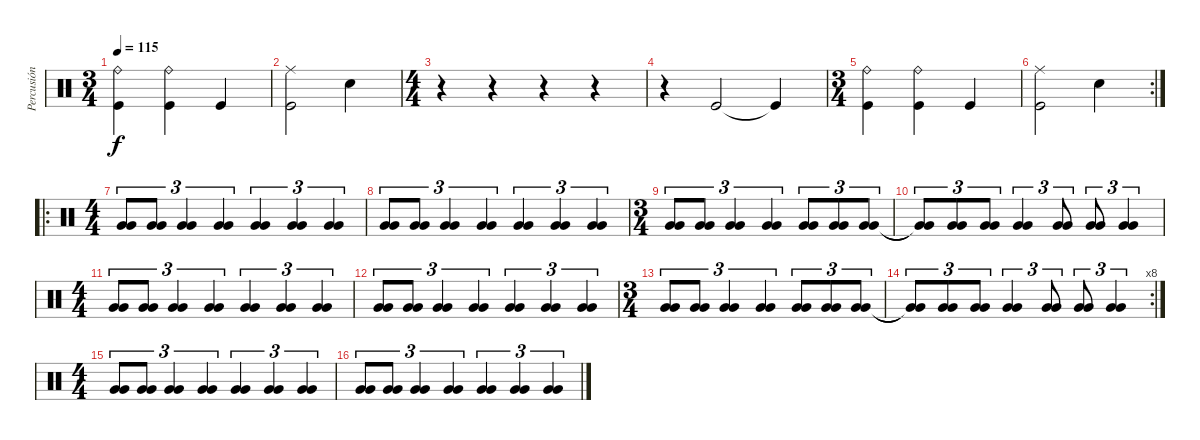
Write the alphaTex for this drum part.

\track ("Percusión" "Percusión") {instrument percussion}
\staff {score}
\articulation defaults
\ts (3 4)
\tempo 115
\clef neutral
\ks c
("Ride (bell)" "Kick (hit)").4{dy f} ("Ride (bell)" "Kick (hit)").4 "Kick (hit)".4 |
("Ride (middle)" "Kick (hit)").2 "Electric Snare (hit)".4 |
\ts (4 4)
r.4 r.4 r.4 r.4 |
r.4 "Kick (hit)".2 "Kick (hit)"{t}.4 |
\ts (3 4)
("Ride (bell)" "Kick (hit)").4 ("Ride (bell)" "Kick (hit)").4 "Kick (hit)".4 |
\rc 2
("Ride (middle)" "Kick (hit)").2 "Electric Snare (hit)".4 |
\ro
\ts (4 4)
("Very Low Tom (hit)" "Very Low Tom (hit)").8{tu (3 2)} ("Very Low Tom (hit)" "Very Low Tom (hit)").8{tu (3 2)} ("Very Low Tom (hit)" "Very Low Tom (hit)").4{tu (3 2)} ("Very Low Tom (hit)" "Very Low Tom (hit)").4{tu (3 2)} ("Very Low Tom (hit)" "Very Low Tom (hit)").4{tu (3 2)} ("Very Low Tom (hit)" "Very Low Tom (hit)").4{tu (3 2)} ("Very Low Tom (hit)" "Very Low Tom (hit)").4{tu (3 2)} |
("Very Low Tom (hit)" "Very Low Tom (hit)").8{tu (3 2)} ("Very Low Tom (hit)" "Very Low Tom (hit)").8{tu (3 2)} ("Very Low Tom (hit)" "Very Low Tom (hit)").4{tu (3 2)} ("Very Low Tom (hit)" "Very Low Tom (hit)").4{tu (3 2)} ("Very Low Tom (hit)" "Very Low Tom (hit)").4{tu (3 2)} ("Very Low Tom (hit)" "Very Low Tom (hit)").4{tu (3 2)} ("Very Low Tom (hit)" "Very Low Tom (hit)").4{tu (3 2)} |
\ts (3 4)
("Very Low Tom (hit)" "Very Low Tom (hit)").8{tu (3 2)} ("Very Low Tom (hit)" "Very Low Tom (hit)").8{tu (3 2)} ("Very Low Tom (hit)" "Very Low Tom (hit)").4{tu (3 2)} ("Very Low Tom (hit)" "Very Low Tom (hit)").4{tu (3 2)} ("Very Low Tom (hit)" "Very Low Tom (hit)").8{tu (3 2)} ("Very Low Tom (hit)" "Very Low Tom (hit)").8{tu (3 2)} ("Very Low Tom (hit)" "Very Low Tom (hit)").8{tu (3 2)} |
("Very Low Tom (hit)"{t} "Very Low Tom (hit)"{t}).8{tu (3 2)} ("Very Low Tom (hit)" "Very Low Tom (hit)").8{tu (3 2)} ("Very Low Tom (hit)" "Very Low Tom (hit)").8{tu (3 2)} ("Very Low Tom (hit)" "Very Low Tom (hit)").4{tu (3 2)} ("Very Low Tom (hit)" "Very Low Tom (hit)").8{tu (3 2)} ("Very Low Tom (hit)" "Very Low Tom (hit)").8{tu (3 2)} ("Very Low Tom (hit)" "Very Low Tom (hit)").4{tu (3 2)} |
\ts (4 4)
("Very Low Tom (hit)" "Very Low Tom (hit)").8{tu (3 2)} ("Very Low Tom (hit)" "Very Low Tom (hit)").8{tu (3 2)} ("Very Low Tom (hit)" "Very Low Tom (hit)").4{tu (3 2)} ("Very Low Tom (hit)" "Very Low Tom (hit)").4{tu (3 2)} ("Very Low Tom (hit)" "Very Low Tom (hit)").4{tu (3 2)} ("Very Low Tom (hit)" "Very Low Tom (hit)").4{tu (3 2)} ("Very Low Tom (hit)" "Very Low Tom (hit)").4{tu (3 2)} |
("Very Low Tom (hit)" "Very Low Tom (hit)").8{tu (3 2)} ("Very Low Tom (hit)" "Very Low Tom (hit)").8{tu (3 2)} ("Very Low Tom (hit)" "Very Low Tom (hit)").4{tu (3 2)} ("Very Low Tom (hit)" "Very Low Tom (hit)").4{tu (3 2)} ("Very Low Tom (hit)" "Very Low Tom (hit)").4{tu (3 2)} ("Very Low Tom (hit)" "Very Low Tom (hit)").4{tu (3 2)} ("Very Low Tom (hit)" "Very Low Tom (hit)").4{tu (3 2)} |
\ts (3 4)
("Very Low Tom (hit)" "Very Low Tom (hit)").8{tu (3 2)} ("Very Low Tom (hit)" "Very Low Tom (hit)").8{tu (3 2)} ("Very Low Tom (hit)" "Very Low Tom (hit)").4{tu (3 2)} ("Very Low Tom (hit)" "Very Low Tom (hit)").4{tu (3 2)} ("Very Low Tom (hit)" "Very Low Tom (hit)").8{tu (3 2)} ("Very Low Tom (hit)" "Very Low Tom (hit)").8{tu (3 2)} ("Very Low Tom (hit)" "Very Low Tom (hit)").8{tu (3 2)} |
\rc 8
("Very Low Tom (hit)"{t} "Very Low Tom (hit)"{t}).8{tu (3 2)} ("Very Low Tom (hit)" "Very Low Tom (hit)").8{tu (3 2)} ("Very Low Tom (hit)" "Very Low Tom (hit)").8{tu (3 2)} ("Very Low Tom (hit)" "Very Low Tom (hit)").4{tu (3 2)} ("Very Low Tom (hit)" "Very Low Tom (hit)").8{tu (3 2)} ("Very Low Tom (hit)" "Very Low Tom (hit)").8{tu (3 2)} ("Very Low Tom (hit)" "Very Low Tom (hit)").4{tu (3 2)} |
\ts (4 4)
("Very Low Tom (hit)" "Very Low Tom (hit)").8{tu (3 2)} ("Very Low Tom (hit)" "Very Low Tom (hit)").8{tu (3 2)} ("Very Low Tom (hit)" "Very Low Tom (hit)").4{tu (3 2)} ("Very Low Tom (hit)" "Very Low Tom (hit)").4{tu (3 2)} ("Very Low Tom (hit)" "Very Low Tom (hit)").4{tu (3 2)} ("Very Low Tom (hit)" "Very Low Tom (hit)").4{tu (3 2)} ("Very Low Tom (hit)" "Very Low Tom (hit)").4{tu (3 2)} |
("Very Low Tom (hit)" "Very Low Tom (hit)").8{tu (3 2)} ("Very Low Tom (hit)" "Very Low Tom (hit)").8{tu (3 2)} ("Very Low Tom (hit)" "Very Low Tom (hit)").4{tu (3 2)} ("Very Low Tom (hit)" "Very Low Tom (hit)").4{tu (3 2)} ("Very Low Tom (hit)" "Very Low Tom (hit)").4{tu (3 2)} ("Very Low Tom (hit)" "Very Low Tom (hit)").4{tu (3 2)} ("Very Low Tom (hit)" "Very Low Tom (hit)").4{tu (3 2)}
